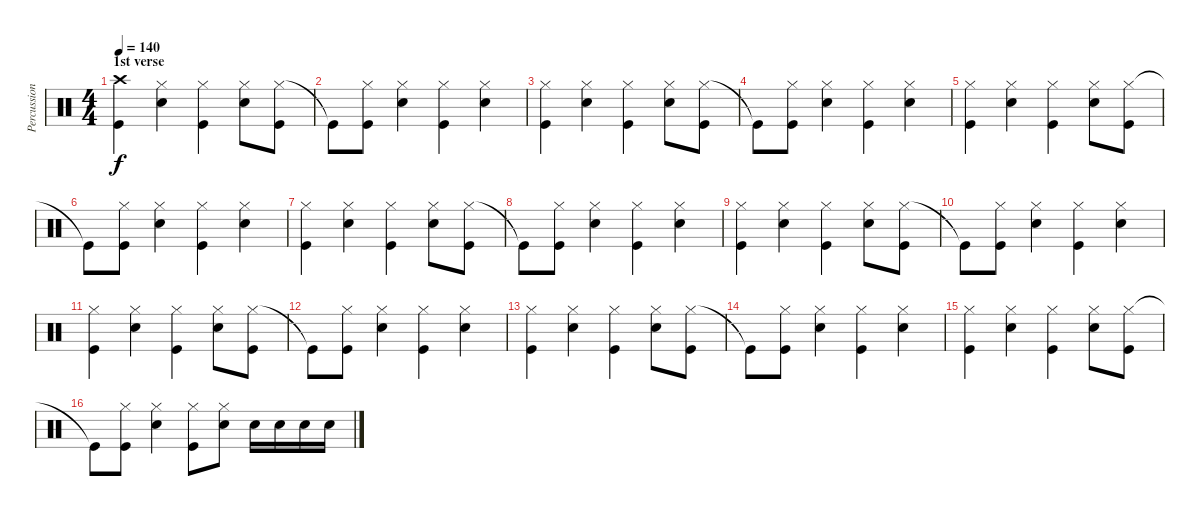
\track ("Percussion" "Percussion") {instrument percussion}
\staff {score}
\articulation defaults
\ts (4 4)
\section ("" "1st verse")
\tempo 140
\clef neutral
\ks c
("Crash high (hit)" "Kick (hit)").4{dy f} ("Hi-Hat (closed)" "Snare (hit) 2").4 ("Hi-Hat (closed)" "Kick (hit)").4 ("Hi-Hat (closed)" "Snare (hit) 2").8 ("Hi-Hat (closed)" "Kick (hit)").8 |
"Kick (hit)"{t}.8 ("Hi-Hat (closed)" "Kick (hit)").8 ("Hi-Hat (closed)" "Snare (hit) 2").4 ("Hi-Hat (closed)" "Kick (hit)").4 ("Hi-Hat (closed)" "Snare (hit) 2").4 |
("Hi-Hat (closed)" "Kick (hit)").4 ("Hi-Hat (closed)" "Snare (hit) 2").4 ("Hi-Hat (closed)" "Kick (hit)").4 ("Hi-Hat (closed)" "Snare (hit) 2").8 ("Hi-Hat (closed)" "Kick (hit)").8 |
"Kick (hit)"{t}.8 ("Hi-Hat (closed)" "Kick (hit)").8 ("Hi-Hat (closed)" "Snare (hit) 2").4 ("Hi-Hat (closed)" "Kick (hit)").4 ("Hi-Hat (closed)" "Snare (hit) 2").4 |
("Hi-Hat (closed)" "Kick (hit)").4 ("Hi-Hat (closed)" "Snare (hit) 2").4 ("Hi-Hat (closed)" "Kick (hit)").4 ("Hi-Hat (closed)" "Snare (hit) 2").8 ("Hi-Hat (closed)" "Kick (hit)").8 |
"Kick (hit)"{t}.8 ("Hi-Hat (closed)" "Kick (hit)").8 ("Hi-Hat (closed)" "Snare (hit) 2").4 ("Hi-Hat (closed)" "Kick (hit)").4 ("Hi-Hat (closed)" "Snare (hit) 2").4 |
("Hi-Hat (closed)" "Kick (hit)").4 ("Hi-Hat (closed)" "Snare (hit) 2").4 ("Hi-Hat (closed)" "Kick (hit)").4 ("Hi-Hat (closed)" "Snare (hit) 2").8 ("Hi-Hat (closed)" "Kick (hit)").8 |
"Kick (hit)"{t}.8 ("Hi-Hat (closed)" "Kick (hit)").8 ("Hi-Hat (closed)" "Snare (hit) 2").4 ("Hi-Hat (closed)" "Kick (hit)").4 ("Hi-Hat (closed)" "Snare (hit) 2").4 |
("Hi-Hat (closed)" "Kick (hit)").4 ("Hi-Hat (closed)" "Snare (hit) 2").4 ("Hi-Hat (closed)" "Kick (hit)").4 ("Hi-Hat (closed)" "Snare (hit) 2").8 ("Hi-Hat (closed)" "Kick (hit)").8 |
"Kick (hit)"{t}.8 ("Hi-Hat (closed)" "Kick (hit)").8 ("Hi-Hat (closed)" "Snare (hit) 2").4 ("Hi-Hat (closed)" "Kick (hit)").4 ("Hi-Hat (closed)" "Snare (hit) 2").4 |
("Hi-Hat (closed)" "Kick (hit)").4 ("Hi-Hat (closed)" "Snare (hit) 2").4 ("Hi-Hat (closed)" "Kick (hit)").4 ("Hi-Hat (closed)" "Snare (hit) 2").8 ("Hi-Hat (closed)" "Kick (hit)").8 |
"Kick (hit)"{t}.8 ("Hi-Hat (closed)" "Kick (hit)").8 ("Hi-Hat (closed)" "Snare (hit) 2").4 ("Hi-Hat (closed)" "Kick (hit)").4 ("Hi-Hat (closed)" "Snare (hit) 2").4 |
("Hi-Hat (closed)" "Kick (hit)").4 ("Hi-Hat (closed)" "Snare (hit) 2").4 ("Hi-Hat (closed)" "Kick (hit)").4 ("Hi-Hat (closed)" "Snare (hit) 2").8 ("Hi-Hat (closed)" "Kick (hit)").8 |
"Kick (hit)"{t}.8 ("Hi-Hat (closed)" "Kick (hit)").8 ("Hi-Hat (closed)" "Snare (hit) 2").4 ("Hi-Hat (closed)" "Kick (hit)").4 ("Hi-Hat (closed)" "Snare (hit) 2").4 |
("Hi-Hat (closed)" "Kick (hit)").4 ("Hi-Hat (closed)" "Snare (hit) 2").4 ("Hi-Hat (closed)" "Kick (hit)").4 ("Hi-Hat (closed)" "Snare (hit) 2").8 ("Hi-Hat (closed)" "Kick (hit)").8 |
"Kick (hit)"{t}.8 ("Hi-Hat (closed)" "Kick (hit)").8 ("Hi-Hat (closed)" "Snare (hit) 2").4 ("Hi-Hat (closed)" "Kick (hit)").8 ("Hi-Hat (closed)" "Snare (hit) 2").8 "Snare (hit) 2".16 "Snare (hit) 2".16 "Snare (hit) 2".16 "Snare (hit) 2".16
